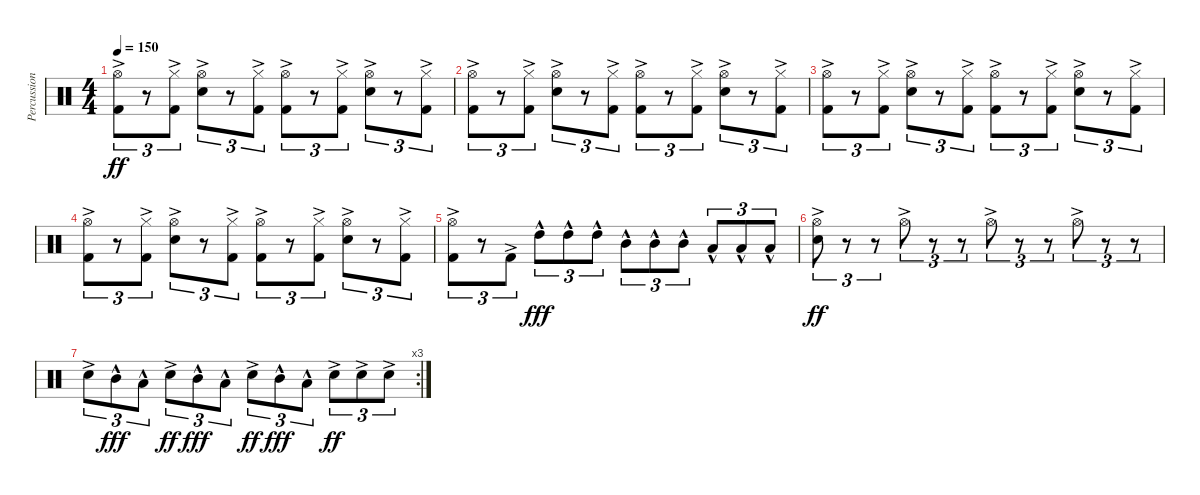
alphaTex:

\track ("Percussion" "Percussion") {instrument percussion}
\staff {score}
\articulation defaults
\ts (4 4)
\tempo 150
\clef neutral
\ks c
("Hi-Hat (open)"{ac} "Kick (hit) 2"{ac}).8{tu (3 2) dy ff} r.8{tu (3 2)} ("Hi-Hat (closed)"{ac} "Kick (hit) 2"{ac}).8{tu (3 2)} ("Hi-Hat (open)"{ac} "Snare (hit) 2"{ac}).8{tu (3 2)} r.8{tu (3 2)} ("Hi-Hat (closed)"{ac} "Kick (hit) 2"{ac}).8{tu (3 2)} ("Hi-Hat (open)"{ac} "Kick (hit) 2"{ac}).8{tu (3 2)} r.8{tu (3 2)} ("Hi-Hat (closed)"{ac} "Kick (hit) 2"{ac}).8{tu (3 2)} ("Hi-Hat (open)"{ac} "Snare (hit) 2"{ac}).8{tu (3 2)} r.8{tu (3 2)} ("Hi-Hat (closed)"{ac} "Kick (hit) 2"{ac}).8{tu (3 2)} |
("Hi-Hat (open)"{ac} "Kick (hit) 2"{ac}).8{tu (3 2)} r.8{tu (3 2)} ("Hi-Hat (closed)"{ac} "Kick (hit) 2"{ac}).8{tu (3 2)} ("Hi-Hat (open)"{ac} "Snare (hit) 2"{ac}).8{tu (3 2)} r.8{tu (3 2)} ("Hi-Hat (closed)"{ac} "Kick (hit) 2"{ac}).8{tu (3 2)} ("Hi-Hat (open)"{ac} "Kick (hit) 2"{ac}).8{tu (3 2)} r.8{tu (3 2)} ("Hi-Hat (closed)"{ac} "Kick (hit) 2"{ac}).8{tu (3 2)} ("Hi-Hat (open)"{ac} "Snare (hit) 2"{ac}).8{tu (3 2)} r.8{tu (3 2)} ("Hi-Hat (closed)"{ac} "Kick (hit) 2"{ac}).8{tu (3 2)} |
("Hi-Hat (open)"{ac} "Kick (hit) 2"{ac}).8{tu (3 2)} r.8{tu (3 2)} ("Hi-Hat (closed)"{ac} "Kick (hit) 2"{ac}).8{tu (3 2)} ("Hi-Hat (open)"{ac} "Snare (hit) 2"{ac}).8{tu (3 2)} r.8{tu (3 2)} ("Hi-Hat (closed)"{ac} "Kick (hit) 2"{ac}).8{tu (3 2)} ("Hi-Hat (open)"{ac} "Kick (hit) 2"{ac}).8{tu (3 2)} r.8{tu (3 2)} ("Hi-Hat (closed)"{ac} "Kick (hit) 2"{ac}).8{tu (3 2)} ("Hi-Hat (open)"{ac} "Snare (hit) 2"{ac}).8{tu (3 2)} r.8{tu (3 2)} ("Hi-Hat (closed)"{ac} "Kick (hit) 2"{ac}).8{tu (3 2)} |
("Hi-Hat (open)"{ac} "Kick (hit) 2"{ac}).8{tu (3 2)} r.8{tu (3 2)} ("Hi-Hat (closed)"{ac} "Kick (hit) 2"{ac}).8{tu (3 2)} ("Hi-Hat (open)"{ac} "Snare (hit) 2"{ac}).8{tu (3 2)} r.8{tu (3 2)} ("Hi-Hat (closed)"{ac} "Kick (hit) 2"{ac}).8{tu (3 2)} ("Hi-Hat (open)"{ac} "Kick (hit) 2"{ac}).8{tu (3 2)} r.8{tu (3 2)} ("Hi-Hat (closed)"{ac} "Kick (hit) 2"{ac}).8{tu (3 2)} ("Hi-Hat (open)"{ac} "Snare (hit) 2"{ac}).8{tu (3 2)} r.8{tu (3 2)} ("Hi-Hat (closed)"{ac} "Kick (hit) 2"{ac}).8{tu (3 2)} |
("Hi-Hat (open)"{ac} "Kick (hit) 2"{ac}).8{tu (3 2)} r.8{tu (3 2)} "Kick (hit) 2"{ac}.8{tu (3 2)} "High Tom (hit)"{hac}.8{tu (3 2) dy fff} "High Tom (hit)"{hac}.8{tu (3 2)} "High Tom (hit)"{hac}.8{tu (3 2)} "Mid Tom (hit)"{hac}.8{tu (3 2)} "Mid Tom (hit)"{hac}.8{tu (3 2)} "Mid Tom (hit)"{hac}.8{tu (3 2)} "Low Tom (hit)"{hac}.8{tu (3 2)} "Low Tom (hit)"{hac}.8{tu (3 2)} "Low Tom (hit)"{hac}.8{tu (3 2)} |
("Hi-Hat (open)"{ac} "Snare (hit) 2"{ac}).8{tu (3 2) dy ff} r.8{tu (3 2)} r.8{tu (3 2)} "Hi-Hat (open)"{ac}.8{tu (3 2)} r.8{tu (3 2)} r.8{tu (3 2)} "Hi-Hat (open)"{ac}.8{tu (3 2)} r.8{tu (3 2)} r.8{tu (3 2)} "Hi-Hat (open)"{ac}.8{tu (3 2)} r.8{tu (3 2)} r.8{tu (3 2)} |
\rc 3 "Snare (hit) 2"{ac}.8{tu (3 2)} "Mid Tom (hit)"{hac}.8{tu (3 2) dy fff} "Low Tom (hit)"{hac}.8{tu (3 2)} "Snare (hit) 2"{ac}.8{tu (3 2) dy ff} "Mid Tom (hit)"{hac}.8{tu (3 2) dy fff} "Low Tom (hit)"{hac}.8{tu (3 2)} "Snare (hit) 2"{ac}.8{tu (3 2) dy ff} "Mid Tom (hit)"{hac}.8{tu (3 2) dy fff} "Low Tom (hit)"{hac}.8{tu (3 2)} "Snare (hit) 2"{ac}.8{tu (3 2) dy ff} "Snare (hit) 2"{ac}.8{tu (3 2)} "Snare (hit) 2"{ac}.8{tu (3 2)}
